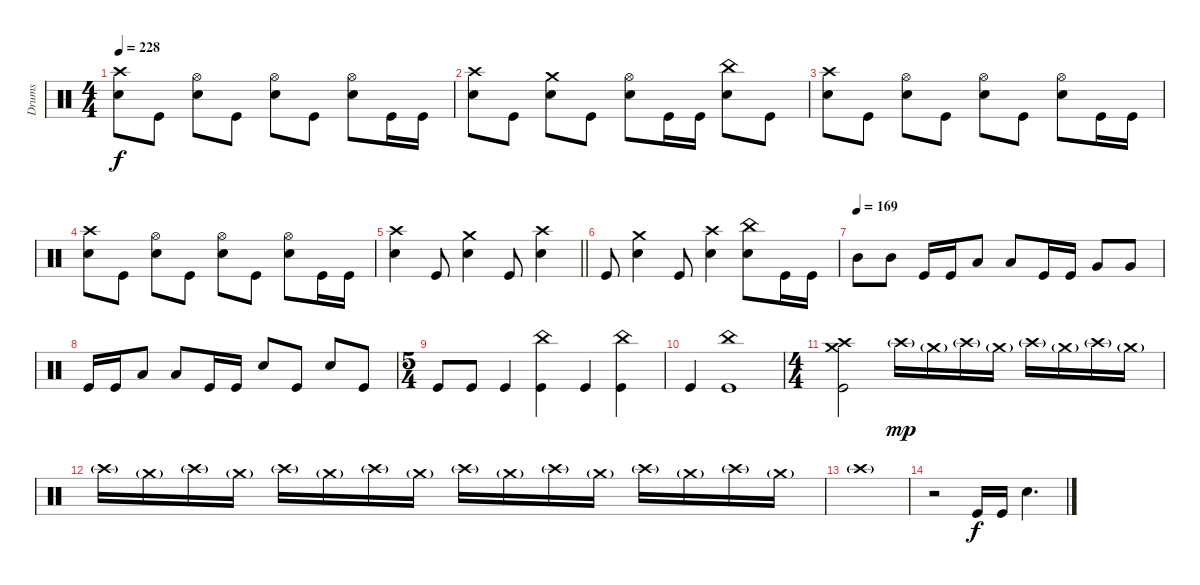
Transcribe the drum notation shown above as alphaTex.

\track ("Drums" "Drums") {instrument percussion}
\staff
\articulation defaults
\ts (4 4)
\tempo 228
\clef neutral
\ks c
("Crash high (hit)" "Electric Snare (hit)").8{dy f} "Kick (hit)".8 ("Hi-Hat (open)" "Electric Snare (hit)").8 "Kick (hit)".8 ("Hi-Hat (open)" "Electric Snare (hit)").8 "Kick (hit)".8 ("Hi-Hat (open)" "Electric Snare (hit)").8 "Kick (hit)".16 "Kick (hit)".16 |
("Crash high (hit)" "Electric Snare (hit)").8 "Kick (hit)".8 ("Crash medium (hit)" "Electric Snare (hit)").8 "Kick (hit)".8 ("Hi-Hat (open)" "Electric Snare (hit)").8 "Kick (hit)".16 "Kick (hit)".16 ("China (hit)" "Electric Snare (hit)").8 "Kick (hit)".8 |
("Crash high (hit)" "Electric Snare (hit)").8 "Kick (hit)".8 ("Hi-Hat (open)" "Electric Snare (hit)").8 "Kick (hit)".8 ("Hi-Hat (open)" "Electric Snare (hit)").8 "Kick (hit)".8 ("Hi-Hat (open)" "Electric Snare (hit)").8 "Kick (hit)".16 "Kick (hit)".16 |
("Crash high (hit)" "Electric Snare (hit)").8 "Kick (hit)".8 ("Hi-Hat (open)" "Electric Snare (hit)").8 "Kick (hit)".8 ("Hi-Hat (open)" "Electric Snare (hit)").8 "Kick (hit)".8 ("Hi-Hat (open)" "Electric Snare (hit)").8 "Kick (hit)".16 "Kick (hit)".16 |
\barLineRight lightlight
("Crash high (hit)" "Electric Snare (hit)").4 "Kick (hit)".8 ("Crash medium (hit)" "Electric Snare (hit)").4 "Kick (hit)".8 ("Crash high (hit)" "Electric Snare (hit)").4 |
"Kick (hit)".8 ("Crash medium (hit)" "Electric Snare (hit)").4 "Kick (hit)".8 ("Crash high (hit)" "Electric Snare (hit)").4 ("China (hit)" "Electric Snare (hit)").8 "Kick (hit)".16 "Kick (hit)".16 |
\tempo (169)
"Mid Tom (hit)".8 "Mid Tom (hit)".8 "Kick (hit)".16 "Kick (hit)".16 "Low Tom (hit)".8 "Low Tom (hit)".8 "Kick (hit)".16 "Kick (hit)".16 "Very Low Tom (hit)".8 "Very Low Tom (hit)".8 |
"Kick (hit)".16 "Kick (hit)".16 "Low Floor Tom (hit)".8 "Low Floor Tom (hit)".8 "Kick (hit)".16 "Kick (hit)".16 "Electric Snare (hit)".8 "Kick (hit)".8 "Electric Snare (hit)".8 "Kick (hit)".8 |
\ts (5 4)
"Kick (hit)".8 "Kick (hit)".8 "Kick (hit)".4 ("China (hit)" "Kick (hit)").4 "Kick (hit)".4 ("China (hit)" "Kick (hit)").4 |
"Kick (hit)".4 ("China (hit)" "Kick (hit)").1 |
\ts (4 4)
("Crash high (hit)" "Crash medium (hit)" "Kick (hit)").2 "Crash high (hit)"{g}.16{dy mp} "Crash medium (hit)"{g}.16 "Crash high (hit)"{g}.16 "Crash medium (hit)"{g}.16 "Crash high (hit)"{g}.16 "Crash medium (hit)"{g}.16 "Crash high (hit)"{g}.16 "Crash medium (hit)"{g}.16 |
"Crash high (hit)"{g}.16 "Crash medium (hit)"{g}.16 "Crash high (hit)"{g}.16 "Crash medium (hit)"{g}.16 "Crash high (hit)"{g}.16 "Crash medium (hit)"{g}.16 "Crash high (hit)"{g}.16 "Crash medium (hit)"{g}.16 "Crash high (hit)"{g}.16 "Crash medium (hit)"{g}.16 "Crash high (hit)"{g}.16 "Crash medium (hit)"{g}.16 "Crash high (hit)"{g}.16 "Crash medium (hit)"{g}.16 "Crash high (hit)"{g}.16 "Crash medium (hit)"{g}.16 |
"Crash high (hit)"{g}.1 |
r.2 "Kick (hit)".16{dy f} "Kick (hit)".16 "Electric Snare (hit)".4{d}
